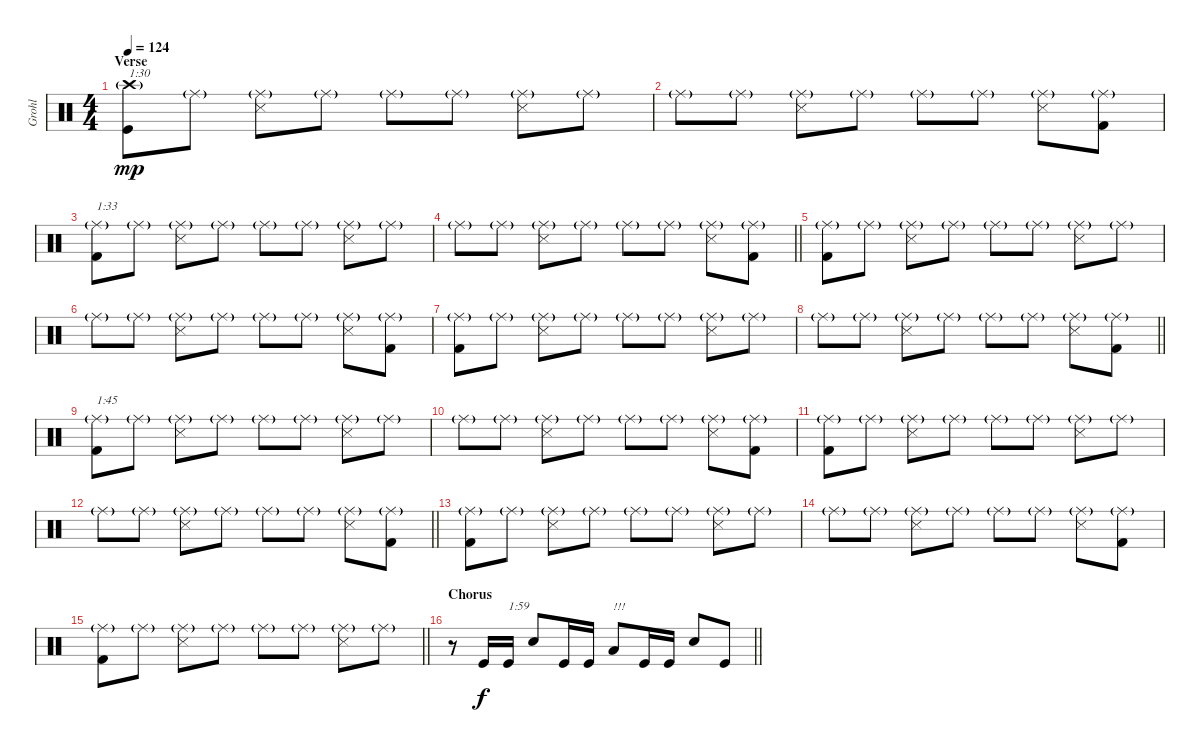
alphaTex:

\track ("Grohl" "Grohl") {instrument percussion}
\staff {score}
\articulation defaults
\ts (4 4)
\section ("" "Verse")
\tempo 124
\clef neutral
\ks c
("Crash high (hit)"{g} "Kick (hit)").8{txt "1:30" dy mp} "Ride (middle)"{g}.8 ("Ride (middle)"{g} "Snare (side stick) 3").8 "Ride (middle)"{g}.8 "Ride (middle)"{g}.8 "Ride (middle)"{g}.8 ("Ride (middle)"{g} "Snare (side stick) 3").8 "Ride (middle)"{g}.8 |
"Ride (middle)"{g}.8 "Ride (middle)"{g}.8 ("Ride (middle)"{g} "Snare (side stick) 3").8 "Ride (middle)"{g}.8 "Ride (middle)"{g}.8 "Ride (middle)"{g}.8 ("Ride (middle)"{g} "Snare (side stick) 3").8 ("Ride (middle)"{g} "Kick (hit) 2").8 |
("Ride (middle)"{g} "Kick (hit) 2").8{txt "1:33"} "Ride (middle)"{g}.8 ("Ride (middle)"{g} "Snare (side stick) 3").8 "Ride (middle)"{g}.8 "Ride (middle)"{g}.8 "Ride (middle)"{g}.8 ("Ride (middle)"{g} "Snare (side stick) 3").8 "Ride (middle)"{g}.8 |
\barLineRight lightlight "Ride (middle)"{g}.8 "Ride (middle)"{g}.8
("Ride (middle)"{g} "Snare (side stick) 3").8 "Ride (middle)"{g}.8 "Ride (middle)"{g}.8 "Ride (middle)"{g}.8 ("Ride (middle)"{g} "Snare (side stick) 3").8 ("Ride (middle)"{g} "Kick (hit) 2").8 |
("Ride (middle)"{g} "Kick (hit) 2").8 "Ride (middle)"{g}.8 ("Ride (middle)"{g} "Snare (side stick) 3").8 "Ride (middle)"{g}.8 "Ride (middle)"{g}.8 "Ride (middle)"{g}.8 ("Ride (middle)"{g} "Snare (side stick) 3").8 "Ride (middle)"{g}.8 |
"Ride (middle)"{g}.8 "Ride (middle)"{g}.8 ("Ride (middle)"{g} "Snare (side stick) 3").8 "Ride (middle)"{g}.8 "Ride (middle)"{g}.8 "Ride (middle)"{g}.8 ("Ride (middle)"{g} "Snare (side stick) 3").8 ("Ride (middle)"{g} "Kick (hit) 2").8 |
("Ride (middle)"{g} "Kick (hit) 2").8 "Ride (middle)"{g}.8 ("Ride (middle)"{g} "Snare (side stick) 3").8 "Ride (middle)"{g}.8 "Ride (middle)"{g}.8 "Ride (middle)"{g}.8 ("Ride (middle)"{g} "Snare (side stick) 3").8 "Ride (middle)"{g}.8 |
\barLineRight lightlight "Ride (middle)"{g}.8 "Ride (middle)"{g}.8
("Ride (middle)"{g} "Snare (side stick) 3").8 "Ride (middle)"{g}.8 "Ride (middle)"{g}.8 "Ride (middle)"{g}.8 ("Ride (middle)"{g} "Snare (side stick) 3").8 ("Ride (middle)"{g} "Kick (hit) 2").8 |
("Ride (middle)"{g} "Kick (hit) 2").8{txt "1:45"} "Ride (middle)"{g}.8 ("Ride (middle)"{g} "Snare (side stick) 3").8 "Ride (middle)"{g}.8 "Ride (middle)"{g}.8 "Ride (middle)"{g}.8 ("Ride (middle)"{g} "Snare (side stick) 3").8 "Ride (middle)"{g}.8 |
"Ride (middle)"{g}.8 "Ride (middle)"{g}.8 ("Ride (middle)"{g} "Snare (side stick) 3").8 "Ride (middle)"{g}.8 "Ride (middle)"{g}.8 "Ride (middle)"{g}.8 ("Ride (middle)"{g} "Snare (side stick) 3").8 ("Ride (middle)"{g} "Kick (hit) 2").8 |
("Ride (middle)"{g} "Kick (hit) 2").8 "Ride (middle)"{g}.8 ("Ride (middle)"{g} "Snare (side stick) 3").8 "Ride (middle)"{g}.8 "Ride (middle)"{g}.8 "Ride (middle)"{g}.8 ("Ride (middle)"{g} "Snare (side stick) 3").8 "Ride (middle)"{g}.8 |
\barLineRight lightlight "Ride (middle)"{g}.8 "Ride (middle)"{g}.8
("Ride (middle)"{g} "Snare (side stick) 3").8 "Ride (middle)"{g}.8 "Ride (middle)"{g}.8 "Ride (middle)"{g}.8 ("Ride (middle)"{g} "Snare (side stick) 3").8 ("Ride (middle)"{g} "Kick (hit) 2").8 |
("Ride (middle)"{g} "Kick (hit) 2").8 "Ride (middle)"{g}.8 ("Ride (middle)"{g} "Snare (side stick) 3").8 "Ride (middle)"{g}.8 "Ride (middle)"{g}.8 "Ride (middle)"{g}.8 ("Ride (middle)"{g} "Snare (side stick) 3").8 "Ride (middle)"{g}.8 |
"Ride (middle)"{g}.8 "Ride (middle)"{g}.8 ("Ride (middle)"{g} "Snare (side stick) 3").8 "Ride (middle)"{g}.8 "Ride (middle)"{g}.8 "Ride (middle)"{g}.8 ("Ride (middle)"{g} "Snare (side stick) 3").8 ("Ride (middle)"{g} "Kick (hit) 2").8 |
\barLineRight lightlight
("Ride (middle)"{g} "Kick (hit) 2").8 "Ride (middle)"{g}.8 ("Ride (middle)"{g} "Snare (side stick) 3").8 "Ride (middle)"{g}.8 "Ride (middle)"{g}.8 "Ride (middle)"{g}.8 ("Ride (middle)"{g} "Snare (side stick) 3").8 "Ride (middle)"{g}.8 |
\section ("" "Chorus")
\barLineRight lightlight
r.8 "Kick (hit)".16{dy f} "Kick (hit)".16{txt "1:59"} "Snare (hit) 2".8 "Kick (hit)".16 "Kick (hit)".16 "Low Tom (hit)".8{txt "!!!"} "Kick (hit)".16 "Kick (hit)".16 "Snare (hit) 2".8 "Kick (hit)".8
